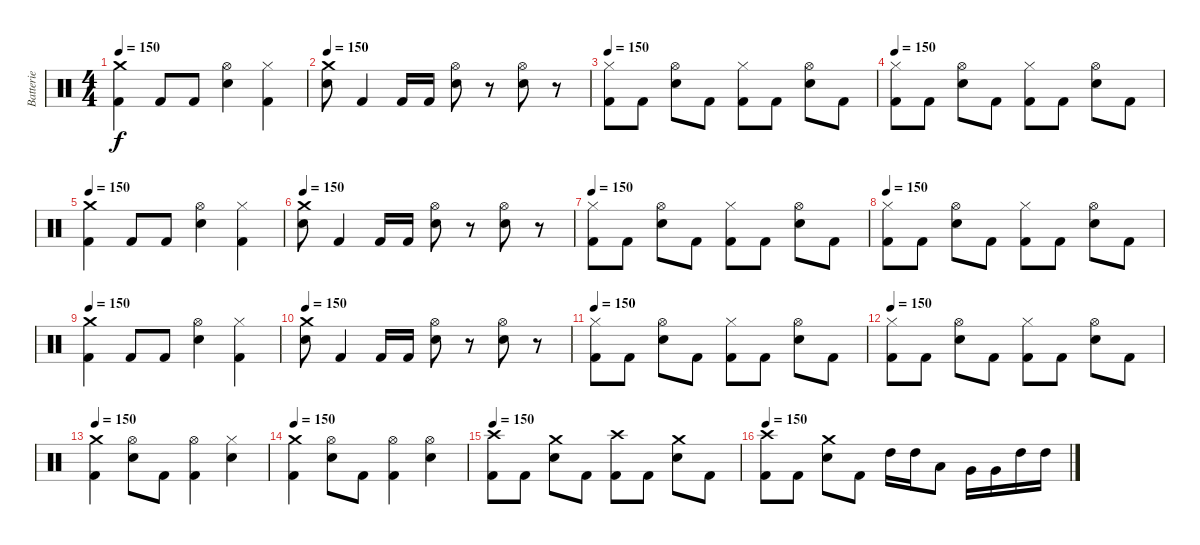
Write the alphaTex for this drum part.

\track ("Batterie" "Batterie") {instrument percussion}
\staff {score}
\articulation defaults
\ts (4 4)
\tempo 150
\clef neutral
\ks c
("Crash medium (hit)" "Kick (hit) 2").4{dy f} "Kick (hit) 2".8 "Kick (hit) 2".8 ("Hi-Hat (open)" "Snare (hit) 2").4 ("Hi-Hat (closed)" "Kick (hit) 2").4 |
\tempo 150
("Crash medium (hit)" "Snare (hit) 2").8 "Kick (hit) 2".4 "Kick (hit) 2".16 "Kick (hit) 2".16 ("Hi-Hat (open)" "Snare (hit) 2").8 r.8 ("Hi-Hat (open)" "Snare (hit) 2").8 r.8 |
\tempo 150
("Hi-Hat (closed)" "Kick (hit) 2").8 "Kick (hit) 2".8 ("Hi-Hat (open)" "Snare (hit) 2").8 "Kick (hit) 2".8 ("Hi-Hat (closed)" "Kick (hit) 2").8 "Kick (hit) 2".8 ("Hi-Hat (open)" "Snare (hit) 2").8 "Kick (hit) 2".8 |
\tempo 150
("Hi-Hat (closed)" "Kick (hit) 2").8 "Kick (hit) 2".8 ("Hi-Hat (open)" "Snare (hit) 2").8 "Kick (hit) 2".8 ("Hi-Hat (closed)" "Kick (hit) 2").8 "Kick (hit) 2".8 ("Hi-Hat (open)" "Snare (hit) 2").8 "Kick (hit) 2".8 |
\tempo 150
("Crash medium (hit)" "Kick (hit) 2").4 "Kick (hit) 2".8 "Kick (hit) 2".8 ("Hi-Hat (open)" "Snare (hit) 2").4 ("Hi-Hat (closed)" "Kick (hit) 2").4 |
\tempo 150
("Crash medium (hit)" "Snare (hit) 2").8 "Kick (hit) 2".4 "Kick (hit) 2".16 "Kick (hit) 2".16 ("Hi-Hat (open)" "Snare (hit) 2").8 r.8 ("Hi-Hat (open)" "Snare (hit) 2").8 r.8 |
\tempo 150
("Hi-Hat (closed)" "Kick (hit) 2").8 "Kick (hit) 2".8 ("Hi-Hat (open)" "Snare (hit) 2").8 "Kick (hit) 2".8 ("Hi-Hat (closed)" "Kick (hit) 2").8 "Kick (hit) 2".8 ("Hi-Hat (open)" "Snare (hit) 2").8 "Kick (hit) 2".8 |
\tempo 150
("Hi-Hat (closed)" "Kick (hit) 2").8 "Kick (hit) 2".8 ("Hi-Hat (open)" "Snare (hit) 2").8 "Kick (hit) 2".8 ("Hi-Hat (closed)" "Kick (hit) 2").8 "Kick (hit) 2".8 ("Hi-Hat (open)" "Snare (hit) 2").8 "Kick (hit) 2".8 |
\tempo 150
("Crash medium (hit)" "Kick (hit) 2").4 "Kick (hit) 2".8 "Kick (hit) 2".8 ("Hi-Hat (open)" "Snare (hit) 2").4 ("Hi-Hat (closed)" "Kick (hit) 2").4 |
\tempo 150
("Crash medium (hit)" "Snare (hit) 2").8 "Kick (hit) 2".4 "Kick (hit) 2".16 "Kick (hit) 2".16 ("Hi-Hat (open)" "Snare (hit) 2").8 r.8 ("Hi-Hat (open)" "Snare (hit) 2").8 r.8 |
\tempo 150
("Hi-Hat (closed)" "Kick (hit) 2").8 "Kick (hit) 2".8 ("Hi-Hat (open)" "Snare (hit) 2").8 "Kick (hit) 2".8 ("Hi-Hat (closed)" "Kick (hit) 2").8 "Kick (hit) 2".8 ("Hi-Hat (open)" "Snare (hit) 2").8 "Kick (hit) 2".8 |
\tempo 150
("Hi-Hat (closed)" "Kick (hit) 2").8 "Kick (hit) 2".8 ("Hi-Hat (open)" "Snare (hit) 2").8 "Kick (hit) 2".8 ("Hi-Hat (closed)" "Kick (hit) 2").8 "Kick (hit) 2".8 ("Hi-Hat (open)" "Snare (hit) 2").8 "Kick (hit) 2".8 |
\tempo 150
("Crash medium (hit)" "Kick (hit) 2").4 ("Hi-Hat (open)" "Snare (hit) 2").8 "Kick (hit) 2".8 ("Hi-Hat (open)" "Kick (hit) 2").4 ("Hi-Hat (closed)" "Snare (hit) 2").4 |
\tempo 150
("Crash medium (hit)" "Kick (hit) 2").4 ("Hi-Hat (open)" "Snare (hit) 2").8 "Kick (hit) 2".8 ("Hi-Hat (open)" "Kick (hit) 2").4 ("Hi-Hat (open)" "Snare (hit) 2").4 |
\tempo 150
("Crash high (hit)" "Kick (hit) 2").8 "Kick (hit) 2".8 ("Crash medium (hit)" "Snare (hit) 2").8 "Kick (hit) 2".8 ("Crash high (hit)" "Kick (hit) 2").8 "Kick (hit) 2".8 ("Crash medium (hit)" "Snare (hit) 2").8 "Kick (hit) 2".8 |
\tempo 150
("Crash high (hit)" "Kick (hit) 2").8 "Kick (hit) 2".8 ("Crash medium (hit)" "Snare (hit) 2").8 "Kick (hit) 2".8 "High Tom (hit)".16 "High Tom (hit)".16 "Low Floor Tom (hit)".8 "Very Low Tom (hit)".16 "Very Low Tom (hit)".16 "High Tom (hit)".16 "High Tom (hit)".16
